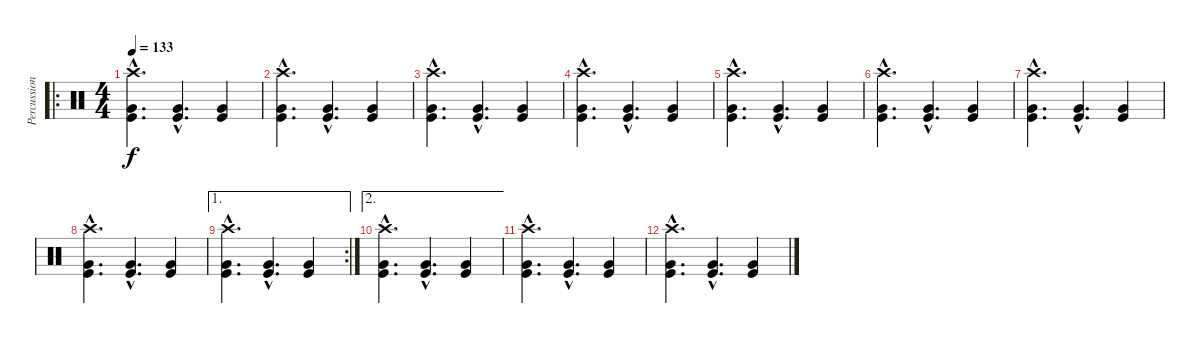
\track ("Percussion" "Percussion") {instrument percussion}
\staff {score}
\articulation defaults
\ro
\ts (4 4)
\tempo 133
\clef neutral
\ks c
("Crash high (hit)"{hac} "Very Low Tom (hit)"{hac} "Kick (hit)"{hac}).4{d dy f} ("Very Low Tom (hit)"{hac} "Kick (hit)"{hac}).4{d} ("Very Low Tom (hit)" "Kick (hit)").4 |
("Crash high (hit)"{hac} "Very Low Tom (hit)"{hac} "Kick (hit)"{hac}).4{d} ("Very Low Tom (hit)"{hac} "Kick (hit)"{hac}).4{d} ("Very Low Tom (hit)" "Kick (hit)").4 |
("Crash high (hit)"{hac} "Very Low Tom (hit)"{hac} "Kick (hit)"{hac}).4{d} ("Very Low Tom (hit)"{hac} "Kick (hit)"{hac}).4{d} ("Very Low Tom (hit)" "Kick (hit)").4 |
("Crash high (hit)"{hac} "Very Low Tom (hit)"{hac} "Kick (hit)"{hac}).4{d} ("Very Low Tom (hit)"{hac} "Kick (hit)"{hac}).4{d} ("Very Low Tom (hit)" "Kick (hit)").4 |
("Crash high (hit)"{hac} "Very Low Tom (hit)"{hac} "Kick (hit)"{hac}).4{d} ("Very Low Tom (hit)"{hac} "Kick (hit)"{hac}).4{d} ("Very Low Tom (hit)" "Kick (hit)").4 |
("Crash high (hit)"{hac} "Very Low Tom (hit)"{hac} "Kick (hit)"{hac}).4{d} ("Very Low Tom (hit)"{hac} "Kick (hit)"{hac}).4{d} ("Very Low Tom (hit)" "Kick (hit)").4 |
("Crash high (hit)"{hac} "Very Low Tom (hit)"{hac} "Kick (hit)"{hac}).4{d} ("Very Low Tom (hit)"{hac} "Kick (hit)"{hac}).4{d} ("Very Low Tom (hit)" "Kick (hit)").4 |
("Crash high (hit)"{hac} "Very Low Tom (hit)"{hac} "Kick (hit)"{hac}).4{d} ("Very Low Tom (hit)"{hac} "Kick (hit)"{hac}).4{d} ("Very Low Tom (hit)" "Kick (hit)").4 |
\ae 1
\rc 2
("Crash high (hit)"{hac} "Very Low Tom (hit)"{hac} "Kick (hit)"{hac}).4{d} ("Very Low Tom (hit)"{hac} "Kick (hit)"{hac}).4{d} ("Very Low Tom (hit)" "Kick (hit)").4 |
\ae 2
("Crash high (hit)"{hac} "Very Low Tom (hit)"{hac} "Kick (hit)"{hac}).4{d} ("Very Low Tom (hit)"{hac} "Kick (hit)"{hac}).4{d} ("Very Low Tom (hit)" "Kick (hit)").4 |
("Crash high (hit)"{hac} "Very Low Tom (hit)"{hac} "Kick (hit)"{hac}).4{d} ("Very Low Tom (hit)"{hac} "Kick (hit)"{hac}).4{d} ("Very Low Tom (hit)" "Kick (hit)").4 |
("Crash high (hit)"{hac} "Very Low Tom (hit)"{hac} "Kick (hit)"{hac}).4{d} ("Very Low Tom (hit)"{hac} "Kick (hit)"{hac}).4{d} ("Very Low Tom (hit)" "Kick (hit)").4
